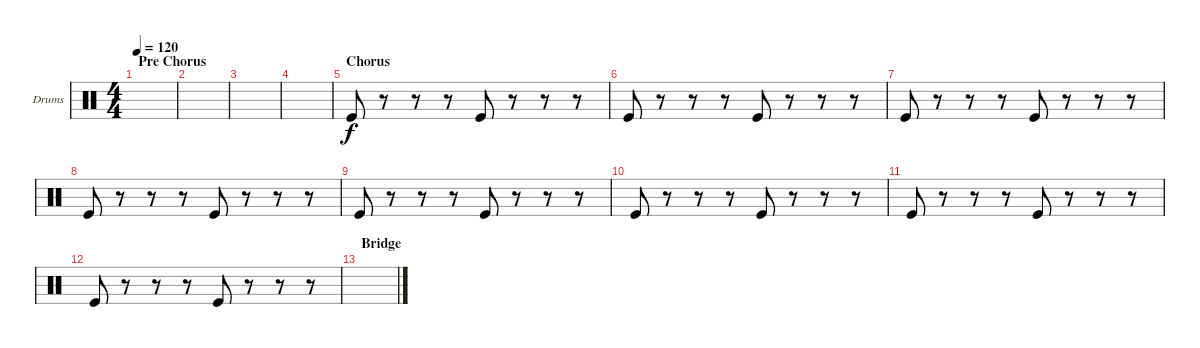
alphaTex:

\defaultSystemsLayout 4
\bracketExtendMode groupsimilarinstruments
\firstSystemTrackNameOrientation horizontal
\otherSystemsTrackNameOrientation horizontal
\track ("Cajon (Drum Box)" "Drums") {instrument percussion}
\staff {score}
\articulation defaults
\ts (4 4)
\section ("" "Pre Chorus")
\tempo 120
\clef neutral
\ks c
|
|
|
|
\section ("" "Chorus")
"Kick (hit)".8 r.8 r.8 r.8 "Kick (hit)".8 r.8 r.8 r.8 |
"Kick (hit)".8 r.8 r.8 r.8 "Kick (hit)".8 r.8 r.8 r.8 |
"Kick (hit)".8 r.8 r.8 r.8 "Kick (hit)".8 r.8 r.8 r.8 |
"Kick (hit)".8 r.8 r.8 r.8 "Kick (hit)".8 r.8 r.8 r.8 |
"Kick (hit)".8 r.8 r.8 r.8 "Kick (hit)".8 r.8 r.8 r.8 |
"Kick (hit)".8 r.8 r.8 r.8 "Kick (hit)".8 r.8 r.8 r.8 |
"Kick (hit)".8 r.8 r.8 r.8 "Kick (hit)".8 r.8 r.8 r.8 |
"Kick (hit)".8 r.8 r.8 r.8 "Kick (hit)".8 r.8 r.8 r.8 |
\section ("" "Bridge")
